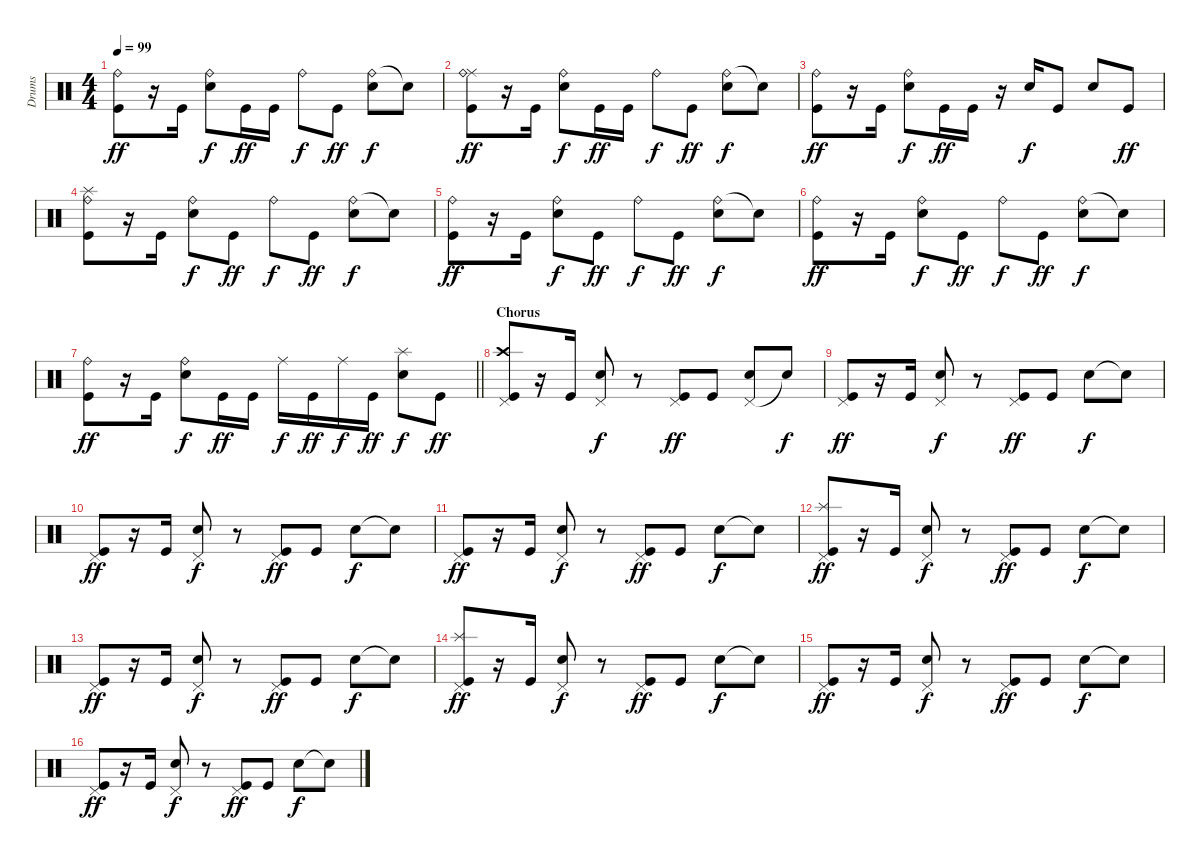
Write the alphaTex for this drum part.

\track ("Drums" "Drums") {instrument percussion}
\staff {score}
\articulation defaults
\ts (4 4)
\tempo 99
\clef neutral
\ks c
("Ride (bell)" "Kick (hit)").8{dy ff} r.16 "Kick (hit)".16 ("Ride (bell)" "Electric Snare (hit)").8{dy f} "Kick (hit)".16{dy ff} "Kick (hit)".16 "Ride (bell)".8{dy f} "Kick (hit)".8{dy ff} ("Ride (bell)" "Electric Snare (hit)").8{dy f} "Snare (hit)"{t}.8 |
("Ride (middle)" "Ride (bell)" "Kick (hit)").8{dy ff} r.16 "Kick (hit)".16 ("Ride (bell)" "Electric Snare (hit)").8{dy f} "Kick (hit)".16{dy ff} "Kick (hit)".16 "Ride (bell)".8{dy f} "Kick (hit)".8{dy ff} ("Ride (bell)" "Electric Snare (hit)").8{dy f} "Snare (hit)"{t}.8 |
("Ride (bell)" "Kick (hit)").8{dy ff} r.16 "Kick (hit)".16 ("Ride (bell)" "Electric Snare (hit)").8{dy f} "Kick (hit)".16{dy ff} "Kick (hit)".16 r.16 "Electric Snare (hit)".16{dy f} "Kick (hit)".8 "Electric Snare (hit)".8 "Kick (hit)".8{dy ff} |
("Splash (hit)" "Ride (bell)" "Kick (hit)").8 r.16 "Kick (hit)".16 ("Ride (bell)" "Electric Snare (hit)").8{dy f} "Kick (hit)".8{dy ff} "Ride (bell)".8{dy f} "Kick (hit)".8{dy ff} ("Ride (bell)" "Electric Snare (hit)").8{dy f} "Snare (hit)"{t}.8 |
("Ride (bell)" "Kick (hit)").8{dy ff} r.16 "Kick (hit)".16 ("Ride (bell)" "Electric Snare (hit)").8{dy f} "Kick (hit)".8{dy ff} "Ride (bell)".8{dy f} "Kick (hit)".8{dy ff} ("Ride (bell)" "Electric Snare (hit)").8{dy f} "Snare (hit)"{t}.8 |
("Ride (bell)" "Kick (hit)").8{dy ff} r.16 "Kick (hit)".16 ("Ride (bell)" "Electric Snare (hit)").8{dy f} "Kick (hit)".8{dy ff} "Ride (bell)".8{dy f} "Kick (hit)".8{dy ff} ("Ride (bell)" "Electric Snare (hit)").8{dy f} "Snare (hit)"{t}.8 |
\barLineRight lightlight
("Ride (bell)" "Kick (hit)").8{dy ff} r.16 "Kick (hit)".16 ("Ride (bell)" "Electric Snare (hit)").8{dy f} "Kick (hit)".16{dy ff} "Kick (hit)".16 "Ride (middle)".16{dy f} "Kick (hit)".16{dy ff} "Ride (middle)".16{dy f} "Kick (hit)".16{dy ff} ("Splash (hit)" "Electric Snare (hit)").8{dy f} "Kick (hit)".8{dy ff} |
\section ("" "Chorus")
("Crash high (hit)" "Pedal Hi-Hat (hit)" "Kick (hit)").8 r.16 "Kick (hit)".16 ("Pedal Hi-Hat (hit)" "Electric Snare (hit)").8{dy f} r.8 ("Pedal Hi-Hat (hit)" "Kick (hit)").8{dy ff} "Kick (hit)".8 ("Pedal Hi-Hat (hit)" "Electric Snare (hit)").8 "Snare (hit)"{t}.8{dy f} |
("Pedal Hi-Hat (hit)" "Kick (hit)").8{dy ff} r.16 "Kick (hit)".16 ("Pedal Hi-Hat (hit)" "Electric Snare (hit)").8{dy f} r.8 ("Pedal Hi-Hat (hit)" "Kick (hit)").8{dy ff} "Kick (hit)".8 "Electric Snare (hit)".8{dy f} "Snare (hit)"{t}.8 |
("Pedal Hi-Hat (hit)" "Kick (hit)").8{dy ff} r.16 "Kick (hit)".16 ("Pedal Hi-Hat (hit)" "Electric Snare (hit)").8{dy f} r.8 ("Pedal Hi-Hat (hit)" "Kick (hit)").8{dy ff} "Kick (hit)".8 "Electric Snare (hit)".8{dy f} "Snare (hit)"{t}.8 |
("Pedal Hi-Hat (hit)" "Kick (hit)").8{dy ff} r.16 "Kick (hit)".16 ("Pedal Hi-Hat (hit)" "Electric Snare (hit)").8{dy f} r.8 ("Pedal Hi-Hat (hit)" "Kick (hit)").8{dy ff} "Kick (hit)".8 "Electric Snare (hit)".8{dy f} "Snare (hit)"{t}.8 |
("Splash (hit)" "Pedal Hi-Hat (hit)" "Kick (hit)").8{dy ff} r.16 "Kick (hit)".16 ("Pedal Hi-Hat (hit)" "Electric Snare (hit)").8{dy f} r.8 ("Pedal Hi-Hat (hit)" "Kick (hit)").8{dy ff} "Kick (hit)".8 "Electric Snare (hit)".8{dy f} "Snare (hit)"{t}.8 |
("Pedal Hi-Hat (hit)" "Kick (hit)").8{dy ff} r.16 "Kick (hit)".16 ("Pedal Hi-Hat (hit)" "Electric Snare (hit)").8{dy f} r.8 ("Pedal Hi-Hat (hit)" "Kick (hit)").8{dy ff} "Kick (hit)".8 "Electric Snare (hit)".8{dy f} "Snare (hit)"{t}.8 |
("Splash (hit)" "Pedal Hi-Hat (hit)" "Kick (hit)").8{dy ff} r.16 "Kick (hit)".16 ("Pedal Hi-Hat (hit)" "Electric Snare (hit)").8{dy f} r.8 ("Pedal Hi-Hat (hit)" "Kick (hit)").8{dy ff} "Kick (hit)".8 "Electric Snare (hit)".8{dy f} "Snare (hit)"{t}.8 |
("Pedal Hi-Hat (hit)" "Kick (hit)").8{dy ff} r.16 "Kick (hit)".16 ("Pedal Hi-Hat (hit)" "Electric Snare (hit)").8{dy f} r.8 ("Pedal Hi-Hat (hit)" "Kick (hit)").8{dy ff} "Kick (hit)".8 "Electric Snare (hit)".8{dy f} "Snare (hit)"{t}.8 |
("Pedal Hi-Hat (hit)" "Kick (hit)").8{dy ff} r.16 "Kick (hit)".16 ("Pedal Hi-Hat (hit)" "Electric Snare (hit)").8{dy f} r.8 ("Pedal Hi-Hat (hit)" "Kick (hit)").8{dy ff} "Kick (hit)".8 "Electric Snare (hit)".8{dy f} "Snare (hit)"{t}.8
